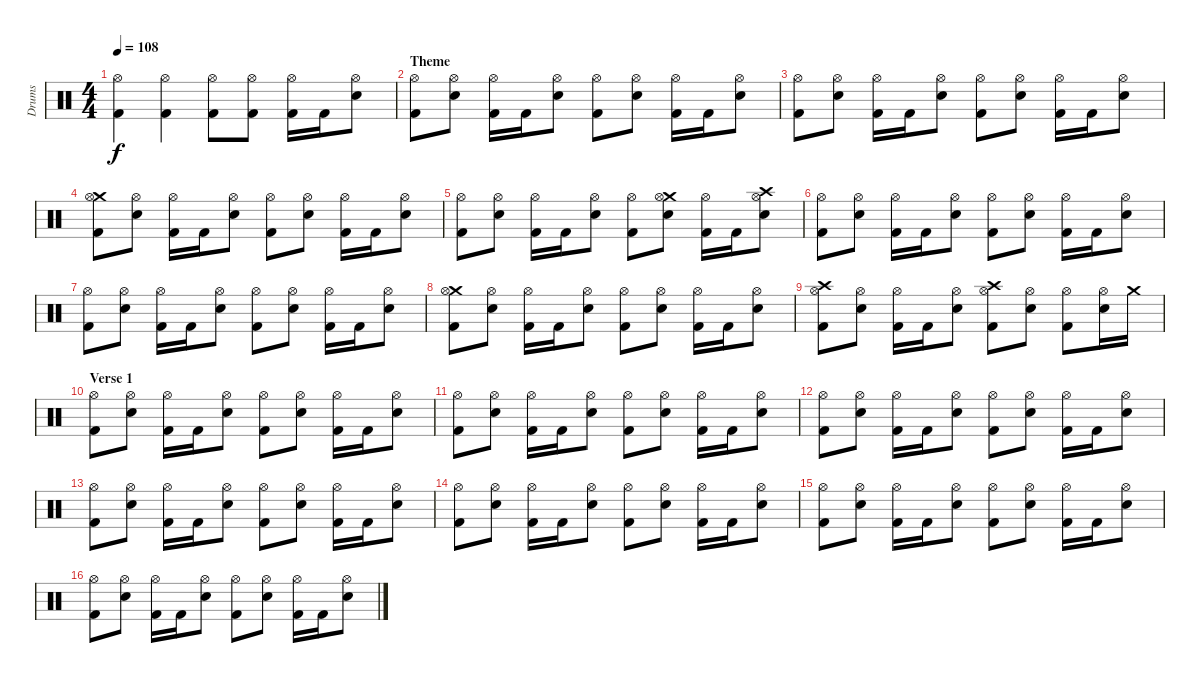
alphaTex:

\track ("Drums" "Drums") {instrument percussion}
\staff {score}
\articulation defaults
\ts (4 4)
\tempo 108
\clef neutral
\ks c
("Hi-Hat (open)" "Kick (hit) 2").4{dy f} ("Hi-Hat (open)" "Kick (hit) 2").4 ("Hi-Hat (open)" "Kick (hit) 2").8 ("Hi-Hat (open)" "Kick (hit) 2").8 ("Hi-Hat (open)" "Kick (hit) 2").16 "Kick (hit) 2".16 ("Hi-Hat (open)" "Electric Snare (hit)").8 |
\section ("" "Theme")
("Hi-Hat (open)" "Kick (hit) 2").8 ("Hi-Hat (open)" "Electric Snare (hit)").8 ("Hi-Hat (open)" "Kick (hit) 2").16 "Kick (hit) 2".16 ("Hi-Hat (open)" "Electric Snare (hit)").8 ("Hi-Hat (open)" "Kick (hit) 2").8 ("Hi-Hat (open)" "Electric Snare (hit)").8 ("Hi-Hat (open)" "Kick (hit) 2").16 "Kick (hit) 2".16 ("Hi-Hat (open)" "Electric Snare (hit)").8 |
("Hi-Hat (open)" "Kick (hit) 2").8 ("Hi-Hat (open)" "Electric Snare (hit)").8 ("Hi-Hat (open)" "Kick (hit) 2").16 "Kick (hit) 2".16 ("Hi-Hat (open)" "Electric Snare (hit)").8 ("Hi-Hat (open)" "Kick (hit) 2").8 ("Hi-Hat (open)" "Electric Snare (hit)").8 ("Hi-Hat (open)" "Kick (hit) 2").16 "Kick (hit) 2".16 ("Hi-Hat (open)" "Electric Snare (hit)").8 |
("Crash medium (hit)" "Hi-Hat (open)" "Kick (hit) 2").8 ("Hi-Hat (open)" "Electric Snare (hit)").8 ("Hi-Hat (open)" "Kick (hit) 2").16 "Kick (hit) 2".16 ("Hi-Hat (open)" "Electric Snare (hit)").8 ("Hi-Hat (open)" "Kick (hit) 2").8 ("Hi-Hat (open)" "Electric Snare (hit)").8 ("Hi-Hat (open)" "Kick (hit) 2").16 "Kick (hit) 2".16 ("Hi-Hat (open)" "Electric Snare (hit)").8 |
("Hi-Hat (open)" "Kick (hit) 2").8 ("Hi-Hat (open)" "Electric Snare (hit)").8 ("Hi-Hat (open)" "Kick (hit) 2").16 "Kick (hit) 2".16 ("Hi-Hat (open)" "Electric Snare (hit)").8 ("Hi-Hat (open)" "Kick (hit) 2").8 ("Crash medium (hit)" "Hi-Hat (open)" "Electric Snare (hit)").8 ("Hi-Hat (open)" "Kick (hit) 2").16 "Kick (hit) 2".16 ("Crash high (hit)" "Hi-Hat (open)" "Electric Snare (hit)").8 |
("Hi-Hat (open)" "Kick (hit) 2").8 ("Hi-Hat (open)" "Electric Snare (hit)").8 ("Hi-Hat (open)" "Kick (hit) 2").16 "Kick (hit) 2".16 ("Hi-Hat (open)" "Electric Snare (hit)").8 ("Hi-Hat (open)" "Kick (hit) 2").8 ("Hi-Hat (open)" "Electric Snare (hit)").8 ("Hi-Hat (open)" "Kick (hit) 2").16 "Kick (hit) 2".16 ("Hi-Hat (open)" "Electric Snare (hit)").8 |
("Hi-Hat (open)" "Kick (hit) 2").8 ("Hi-Hat (open)" "Electric Snare (hit)").8 ("Hi-Hat (open)" "Kick (hit) 2").16 "Kick (hit) 2".16 ("Hi-Hat (open)" "Electric Snare (hit)").8 ("Hi-Hat (open)" "Kick (hit) 2").8 ("Hi-Hat (open)" "Electric Snare (hit)").8 ("Hi-Hat (open)" "Kick (hit) 2").16 "Kick (hit) 2".16 ("Hi-Hat (open)" "Electric Snare (hit)").8 |
("Crash medium (hit)" "Hi-Hat (open)" "Kick (hit) 2").8 ("Hi-Hat (open)" "Electric Snare (hit)").8 ("Hi-Hat (open)" "Kick (hit) 2").16 "Kick (hit) 2".16 ("Hi-Hat (open)" "Electric Snare (hit)").8 ("Hi-Hat (open)" "Kick (hit) 2").8 ("Hi-Hat (open)" "Electric Snare (hit)").8 ("Hi-Hat (open)" "Kick (hit) 2").16 "Kick (hit) 2".16 ("Hi-Hat (open)" "Electric Snare (hit)").8 |
("Crash high (hit)" "Hi-Hat (open)" "Kick (hit) 2").8 ("Hi-Hat (open)" "Electric Snare (hit)").8 ("Hi-Hat (open)" "Kick (hit) 2").16 "Kick (hit) 2".16 ("Hi-Hat (open)" "Electric Snare (hit)").8 ("Crash high (hit)" "Hi-Hat (open)" "Kick (hit) 2").8 ("Hi-Hat (open)" "Electric Snare (hit)").8 ("Hi-Hat (open)" "Kick (hit) 2").8 ("Hi-Hat (open)" "Electric Snare (hit)").16 "Crash medium (hit)".16 |
\section ("" "Verse 1")
("Hi-Hat (open)" "Kick (hit) 2").8 ("Hi-Hat (open)" "Electric Snare (hit)").8 ("Hi-Hat (open)" "Kick (hit) 2").16 "Kick (hit) 2".16 ("Hi-Hat (open)" "Electric Snare (hit)").8 ("Hi-Hat (open)" "Kick (hit) 2").8 ("Hi-Hat (open)" "Electric Snare (hit)").8 ("Hi-Hat (open)" "Kick (hit) 2").16 "Kick (hit) 2".16 ("Hi-Hat (open)" "Electric Snare (hit)").8 |
("Hi-Hat (open)" "Kick (hit) 2").8 ("Hi-Hat (open)" "Electric Snare (hit)").8 ("Hi-Hat (open)" "Kick (hit) 2").16 "Kick (hit) 2".16 ("Hi-Hat (open)" "Electric Snare (hit)").8 ("Hi-Hat (open)" "Kick (hit) 2").8 ("Hi-Hat (open)" "Electric Snare (hit)").8 ("Hi-Hat (open)" "Kick (hit) 2").16 "Kick (hit) 2".16 ("Hi-Hat (open)" "Electric Snare (hit)").8 |
("Hi-Hat (open)" "Kick (hit) 2").8 ("Hi-Hat (open)" "Electric Snare (hit)").8 ("Hi-Hat (open)" "Kick (hit) 2").16 "Kick (hit) 2".16 ("Hi-Hat (open)" "Electric Snare (hit)").8 ("Hi-Hat (open)" "Kick (hit) 2").8 ("Hi-Hat (open)" "Electric Snare (hit)").8 ("Hi-Hat (open)" "Kick (hit) 2").16 "Kick (hit) 2".16 ("Hi-Hat (open)" "Electric Snare (hit)").8 |
("Hi-Hat (open)" "Kick (hit) 2").8 ("Hi-Hat (open)" "Electric Snare (hit)").8 ("Hi-Hat (open)" "Kick (hit) 2").16 "Kick (hit) 2".16 ("Hi-Hat (open)" "Electric Snare (hit)").8 ("Hi-Hat (open)" "Kick (hit) 2").8 ("Hi-Hat (open)" "Electric Snare (hit)").8 ("Hi-Hat (open)" "Kick (hit) 2").16 "Kick (hit) 2".16 ("Hi-Hat (open)" "Electric Snare (hit)").8 |
("Hi-Hat (open)" "Kick (hit) 2").8 ("Hi-Hat (open)" "Electric Snare (hit)").8 ("Hi-Hat (open)" "Kick (hit) 2").16 "Kick (hit) 2".16 ("Hi-Hat (open)" "Electric Snare (hit)").8 ("Hi-Hat (open)" "Kick (hit) 2").8 ("Hi-Hat (open)" "Electric Snare (hit)").8 ("Hi-Hat (open)" "Kick (hit) 2").16 "Kick (hit) 2".16 ("Hi-Hat (open)" "Electric Snare (hit)").8 |
("Hi-Hat (open)" "Kick (hit) 2").8 ("Hi-Hat (open)" "Electric Snare (hit)").8 ("Hi-Hat (open)" "Kick (hit) 2").16 "Kick (hit) 2".16 ("Hi-Hat (open)" "Electric Snare (hit)").8 ("Hi-Hat (open)" "Kick (hit) 2").8 ("Hi-Hat (open)" "Electric Snare (hit)").8 ("Hi-Hat (open)" "Kick (hit) 2").16 "Kick (hit) 2".16 ("Hi-Hat (open)" "Electric Snare (hit)").8 |
("Hi-Hat (open)" "Kick (hit) 2").8 ("Hi-Hat (open)" "Electric Snare (hit)").8 ("Hi-Hat (open)" "Kick (hit) 2").16 "Kick (hit) 2".16 ("Hi-Hat (open)" "Electric Snare (hit)").8 ("Hi-Hat (open)" "Kick (hit) 2").8 ("Hi-Hat (open)" "Electric Snare (hit)").8 ("Hi-Hat (open)" "Kick (hit) 2").16 "Kick (hit) 2".16 ("Hi-Hat (open)" "Electric Snare (hit)").8
